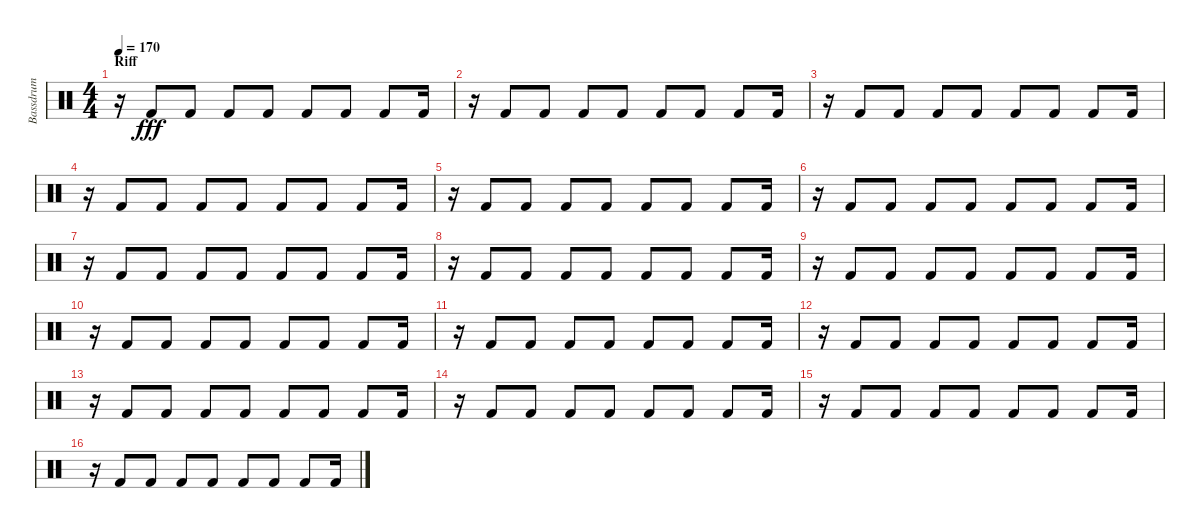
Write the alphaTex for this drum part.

\track ("Bassdrum" "Bassdrum") {instrument percussion}
\staff {score}
\articulation defaults
\ts (4 4)
\section ("" "Riff")
\tempo 170
\clef neutral
\ks c
r.16{dy fff} "Kick (hit) 2".8 "Kick (hit) 2".8 "Kick (hit) 2".8 "Kick (hit) 2".8 "Kick (hit) 2".8 "Kick (hit) 2".8 "Kick (hit) 2".8 "Kick (hit) 2".16 |
r.16 "Kick (hit) 2".8 "Kick (hit) 2".8 "Kick (hit) 2".8 "Kick (hit) 2".8 "Kick (hit) 2".8 "Kick (hit) 2".8 "Kick (hit) 2".8 "Kick (hit) 2".16 |
r.16 "Kick (hit) 2".8 "Kick (hit) 2".8 "Kick (hit) 2".8 "Kick (hit) 2".8 "Kick (hit) 2".8 "Kick (hit) 2".8 "Kick (hit) 2".8 "Kick (hit) 2".16 |
r.16 "Kick (hit) 2".8 "Kick (hit) 2".8 "Kick (hit) 2".8 "Kick (hit) 2".8 "Kick (hit) 2".8 "Kick (hit) 2".8 "Kick (hit) 2".8 "Kick (hit) 2".16 |
r.16 "Kick (hit) 2".8 "Kick (hit) 2".8 "Kick (hit) 2".8 "Kick (hit) 2".8 "Kick (hit) 2".8 "Kick (hit) 2".8 "Kick (hit) 2".8 "Kick (hit) 2".16 |
r.16 "Kick (hit) 2".8 "Kick (hit) 2".8 "Kick (hit) 2".8 "Kick (hit) 2".8 "Kick (hit) 2".8 "Kick (hit) 2".8 "Kick (hit) 2".8 "Kick (hit) 2".16 |
r.16 "Kick (hit) 2".8 "Kick (hit) 2".8 "Kick (hit) 2".8 "Kick (hit) 2".8 "Kick (hit) 2".8 "Kick (hit) 2".8 "Kick (hit) 2".8 "Kick (hit) 2".16 |
r.16 "Kick (hit) 2".8 "Kick (hit) 2".8 "Kick (hit) 2".8 "Kick (hit) 2".8 "Kick (hit) 2".8 "Kick (hit) 2".8 "Kick (hit) 2".8 "Kick (hit) 2".16 |
r.16 "Kick (hit) 2".8 "Kick (hit) 2".8 "Kick (hit) 2".8 "Kick (hit) 2".8 "Kick (hit) 2".8 "Kick (hit) 2".8 "Kick (hit) 2".8 "Kick (hit) 2".16 |
r.16 "Kick (hit) 2".8 "Kick (hit) 2".8 "Kick (hit) 2".8 "Kick (hit) 2".8 "Kick (hit) 2".8 "Kick (hit) 2".8 "Kick (hit) 2".8 "Kick (hit) 2".16 |
r.16 "Kick (hit) 2".8 "Kick (hit) 2".8 "Kick (hit) 2".8 "Kick (hit) 2".8 "Kick (hit) 2".8 "Kick (hit) 2".8 "Kick (hit) 2".8 "Kick (hit) 2".16 |
r.16 "Kick (hit) 2".8 "Kick (hit) 2".8 "Kick (hit) 2".8 "Kick (hit) 2".8 "Kick (hit) 2".8 "Kick (hit) 2".8 "Kick (hit) 2".8 "Kick (hit) 2".16 |
r.16 "Kick (hit) 2".8 "Kick (hit) 2".8 "Kick (hit) 2".8 "Kick (hit) 2".8 "Kick (hit) 2".8 "Kick (hit) 2".8 "Kick (hit) 2".8 "Kick (hit) 2".16 |
r.16 "Kick (hit) 2".8 "Kick (hit) 2".8 "Kick (hit) 2".8 "Kick (hit) 2".8 "Kick (hit) 2".8 "Kick (hit) 2".8 "Kick (hit) 2".8 "Kick (hit) 2".16 |
r.16 "Kick (hit) 2".8 "Kick (hit) 2".8 "Kick (hit) 2".8 "Kick (hit) 2".8 "Kick (hit) 2".8 "Kick (hit) 2".8 "Kick (hit) 2".8 "Kick (hit) 2".16 |
r.16 "Kick (hit) 2".8 "Kick (hit) 2".8 "Kick (hit) 2".8 "Kick (hit) 2".8 "Kick (hit) 2".8 "Kick (hit) 2".8 "Kick (hit) 2".8 "Kick (hit) 2".16
